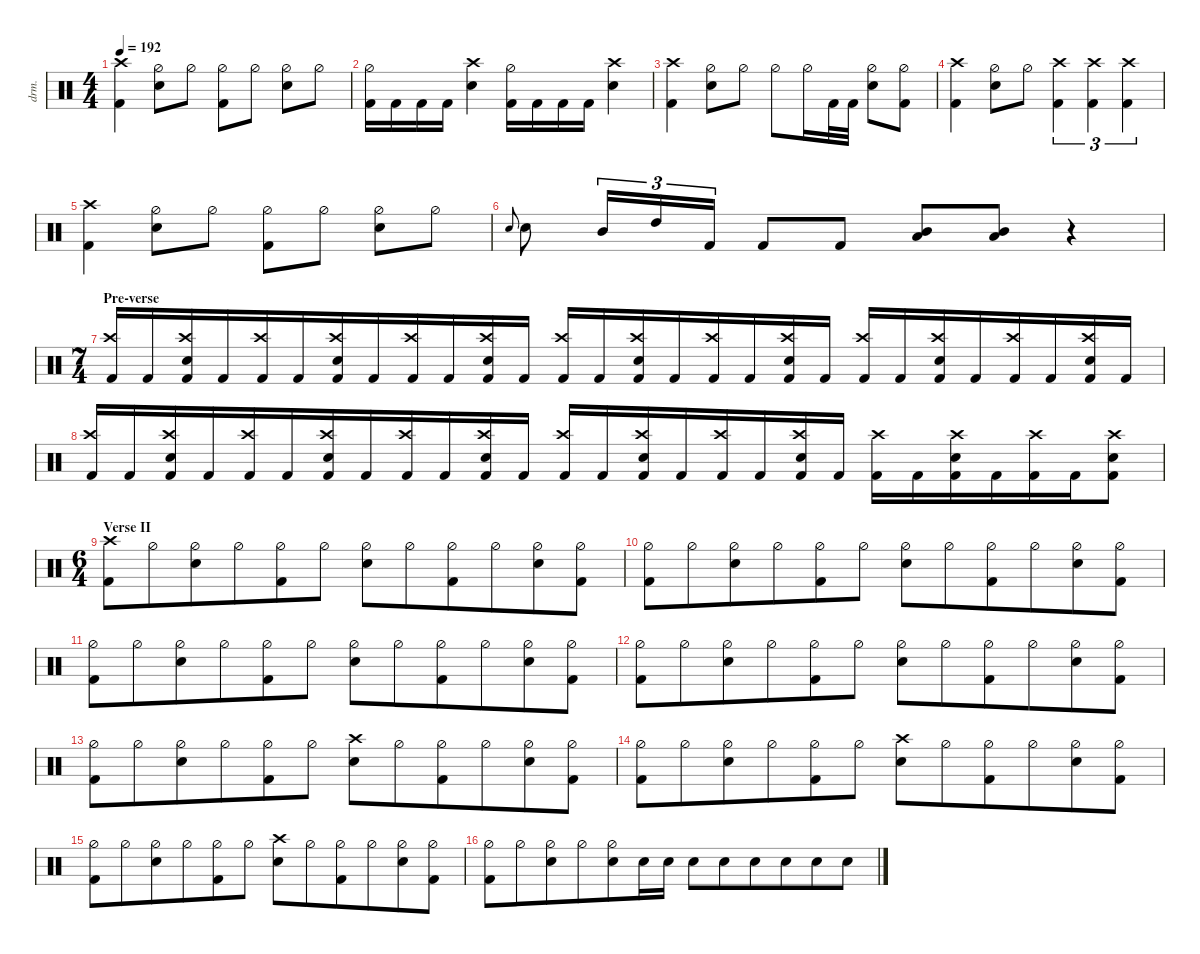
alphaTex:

\defaultSystemsLayout 4
\hideDynamics
\bracketExtendMode nobrackets
\otherSystemsTrackNameOrientation horizontal
\track ("Drumkit" "drm.") {defaultSystemsLayout 4 multiBarRest instrument percussion}
\staff
\articulation defaults
\ts (4 4)
\tempo 192
\clef neutral
\ks c
("Crash high (hit)" "Kick (hit) 2").4{dy f beam Down} ("Hi-Hat (half)" "Snare (hit) 2").8{beam Down} "Hi-Hat (half)".8{beam Down} ("Hi-Hat (half)" "Kick (hit) 2").8{beam Down} "Hi-Hat (half)".8{beam Down} ("Hi-Hat (half)" "Snare (hit) 2").8{beam Down} "Hi-Hat (half)".8{beam Down} |
("Hi-Hat (half)" "Kick (hit) 2").16{beam Down} "Kick (hit) 2".16{beam Down} "Kick (hit) 2".16{beam Down} "Kick (hit) 2".16{beam Down} ("Crash high (hit)" "Snare (hit) 2").4{beam Down} ("Hi-Hat (half)" "Kick (hit) 2").16{beam Down} "Kick (hit) 2".16{beam Down} "Kick (hit) 2".16{beam Down} "Kick (hit) 2".16{beam Down} ("Crash high (hit)" "Snare (hit) 2").4{beam Down} |
("Crash high (hit)" "Kick (hit) 2").4{beam Down} ("Hi-Hat (half)" "Snare (hit) 2").8{beam Down} "Hi-Hat (half)".8{beam Down} "Hi-Hat (half)".8{beam Down} "Hi-Hat (half)".16{beam Down} "Kick (hit) 2".32{beam Down} "Kick (hit) 2".32{beam Down} ("Hi-Hat (half)" "Snare (hit) 2").8{beam Down} ("Hi-Hat (half)" "Kick (hit) 2").8{beam Down} |
("Crash high (hit)" "Kick (hit) 2").4{beam Down} ("Hi-Hat (half)" "Snare (hit) 2").8{beam Down} "Hi-Hat (half)".8{beam Down} ("Crash high (hit)" "Kick (hit) 2").4{tu (3 2) beam Down} ("Crash high (hit)" "Kick (hit) 2").4{tu (3 2) beam Down} ("Crash high (hit)" "Kick (hit) 2").4{tu (3 2) beam Down} |
("Crash high (hit)" "Kick (hit) 2").4{beam Down} ("Hi-Hat (half)" "Snare (hit) 2").8{beam Down} "Hi-Hat (half)".8{beam Down} ("Hi-Hat (half)" "Kick (hit) 2").8{beam Down} "Hi-Hat (half)".8{beam Down} ("Hi-Hat (half)" "Snare (hit) 2").8{beam Down} "Hi-Hat (half)".8{beam Down} |
"Snare (hit) 2".8{gr onbeat beam Up} "Snare (hit) 2".8{beam Down} "Mid Tom (hit)".16{tu (3 2) beam Up} "High Tom (hit)".16{tu (3 2) beam Up} "Kick (hit) 2".16{tu (3 2) beam Up} "Kick (hit) 2".8{beam Up} "Kick (hit) 2".8{beam Up} ("Mid Tom (hit)" "Low Tom (hit)").8{dy fff beam Up} ("Mid Tom (hit)" "Low Tom (hit)").8{beam Up} r.4{beam Up} |
\ts (7 4)
\beaming (8 6 4 4)
\section ("" "Pre-verse")
("Kick (hit) 2" "Crash high (hit)").16{dy f beam Up} "Kick (hit) 2".16{beam Up} ("Kick (hit) 2" "Crash high (hit)" "Snare (hit) 2").16{beam Up} "Kick (hit) 2".16{beam Up} ("Kick (hit) 2" "Crash high (hit)").16{beam Up} "Kick (hit) 2".16{beam Up} ("Kick (hit) 2" "Crash high (hit)" "Snare (hit) 2").16{beam Up} "Kick (hit) 2".16{beam Up} ("Kick (hit) 2" "Crash high (hit)").16{beam Up} "Kick (hit) 2".16{beam Up} ("Kick (hit) 2" "Crash high (hit)" "Snare (hit) 2").16{beam Up} "Kick (hit) 2".16{beam Up} ("Kick (hit) 2" "Crash high (hit)").16{beam Up} "Kick (hit) 2".16{beam Up} ("Kick (hit) 2" "Crash high (hit)" "Snare (hit) 2").16{beam Up} "Kick (hit) 2".16{beam Up} ("Kick (hit) 2" "Crash high (hit)").16{beam Up} "Kick (hit) 2".16{beam Up} ("Kick (hit) 2" "Crash high (hit)" "Snare (hit) 2").16{beam Up} "Kick (hit) 2".16{beam Up} ("Kick (hit) 2" "Crash high (hit)").16{beam Up} "Kick (hit) 2".16{beam Up} ("Kick (hit) 2" "Crash high (hit)" "Snare (hit) 2").16{beam Up} "Kick (hit) 2".16{beam Up} ("Kick (hit) 2" "Crash high (hit)").16{beam Up} "Kick (hit) 2".16{beam Up} ("Kick (hit) 2" "Crash high (hit)" "Snare (hit) 2").16{beam Up} "Kick (hit) 2".16{beam Up} |
("Kick (hit) 2" "Crash high (hit)").16{beam Up} "Kick (hit) 2".16{beam Up} ("Kick (hit) 2" "Crash high (hit)" "Snare (hit) 2").16{beam Up} "Kick (hit) 2".16{beam Up} ("Kick (hit) 2" "Crash high (hit)").16{beam Up} "Kick (hit) 2".16{beam Up} ("Kick (hit) 2" "Crash high (hit)" "Snare (hit) 2").16{beam Up} "Kick (hit) 2".16{beam Up} ("Kick (hit) 2" "Crash high (hit)").16{beam Up} "Kick (hit) 2".16{beam Up} ("Kick (hit) 2" "Crash high (hit)" "Snare (hit) 2").16{beam Up} "Kick (hit) 2".16{beam Up} ("Kick (hit) 2" "Crash high (hit)").16{beam Up} "Kick (hit) 2".16{beam Up} ("Kick (hit) 2" "Crash high (hit)" "Snare (hit) 2").16{beam Up} "Kick (hit) 2".16{beam Up} ("Kick (hit) 2" "Crash high (hit)").16{beam Up} "Kick (hit) 2".16{beam Up} ("Kick (hit) 2" "Crash high (hit)" "Snare (hit) 2").16{beam Up} "Kick (hit) 2".16{beam Up} ("Kick (hit) 2" "Crash high (hit)").16{beam Down} "Kick (hit) 2".16{beam Down} ("Kick (hit) 2" "Crash high (hit)" "Snare (hit) 2").16{beam Down} "Kick (hit) 2".16{beam Down} ("Kick (hit) 2" "Crash high (hit)").16{beam Down} "Kick (hit) 2".16{beam Down} ("Kick (hit) 2" "Crash high (hit)" "Snare (hit) 2").8{beam Down} |
\ts (6 4)
\beaming (8 6 6)
\section ("" "Verse II")
("Kick (hit) 2" "Crash high (hit)").8{beam Down} "Hi-Hat (half)".8{beam Down} ("Hi-Hat (half)" "Snare (hit) 2").8{beam Down} "Hi-Hat (half)".8{beam Down} ("Kick (hit) 2" "Hi-Hat (half)").8{beam Down} "Hi-Hat (half)".8{beam Down} ("Hi-Hat (half)" "Snare (hit) 2").8{beam Down} "Hi-Hat (half)".8{beam Down} ("Kick (hit) 2" "Hi-Hat (half)").8{beam Down} "Hi-Hat (half)".8{beam Down} ("Hi-Hat (half)" "Snare (hit) 2").8{beam Down} ("Hi-Hat (half)" "Kick (hit) 2").8{beam Down} |
("Kick (hit) 2" "Hi-Hat (half)").8{beam Down} "Hi-Hat (half)".8{beam Down} ("Hi-Hat (half)" "Snare (hit) 2").8{beam Down} "Hi-Hat (half)".8{beam Down} ("Kick (hit) 2" "Hi-Hat (half)").8{beam Down} "Hi-Hat (half)".8{beam Down} ("Hi-Hat (half)" "Snare (hit) 2").8{beam Down} "Hi-Hat (half)".8{beam Down} ("Kick (hit) 2" "Hi-Hat (half)").8{beam Down} "Hi-Hat (half)".8{beam Down} ("Hi-Hat (half)" "Snare (hit) 2").8{beam Down} ("Hi-Hat (half)" "Kick (hit) 2").8{beam Down} |
("Kick (hit) 2" "Hi-Hat (half)").8{beam Down} "Hi-Hat (half)".8{beam Down} ("Hi-Hat (half)" "Snare (hit) 2").8{beam Down} "Hi-Hat (half)".8{beam Down} ("Kick (hit) 2" "Hi-Hat (half)").8{beam Down} "Hi-Hat (half)".8{beam Down} ("Hi-Hat (half)" "Snare (hit) 2").8{beam Down} "Hi-Hat (half)".8{beam Down} ("Kick (hit) 2" "Hi-Hat (half)").8{beam Down} "Hi-Hat (half)".8{beam Down} ("Hi-Hat (half)" "Snare (hit) 2").8{beam Down} ("Hi-Hat (half)" "Kick (hit) 2").8{beam Down} |
("Kick (hit) 2" "Hi-Hat (half)").8{beam Down} "Hi-Hat (half)".8{beam Down} ("Hi-Hat (half)" "Snare (hit) 2").8{beam Down} "Hi-Hat (half)".8{beam Down} ("Kick (hit) 2" "Hi-Hat (half)").8{beam Down} "Hi-Hat (half)".8{beam Down} ("Hi-Hat (half)" "Snare (hit) 2").8{beam Down} "Hi-Hat (half)".8{beam Down} ("Kick (hit) 2" "Hi-Hat (half)").8{beam Down} "Hi-Hat (half)".8{beam Down} ("Hi-Hat (half)" "Snare (hit) 2").8{beam Down} ("Hi-Hat (half)" "Kick (hit) 2").8{beam Down} |
("Kick (hit) 2" "Hi-Hat (half)").8{beam Down} "Hi-Hat (half)".8{beam Down} ("Snare (hit) 2" "Hi-Hat (half)").8{beam Down} "Hi-Hat (half)".8{beam Down} ("Kick (hit) 2" "Hi-Hat (half)").8{beam Down} "Hi-Hat (half)".8{beam Down} ("Snare (hit) 2" "Crash high (hit)").8{beam Down} "Hi-Hat (half)".8{beam Down} ("Kick (hit) 2" "Hi-Hat (half)").8{beam Down} "Hi-Hat (half)".8{beam Down} ("Hi-Hat (half)" "Snare (hit) 2").8{beam Down} ("Hi-Hat (half)" "Kick (hit) 2").8{beam Down} |
("Kick (hit) 2" "Hi-Hat (half)").8{beam Down} "Hi-Hat (half)".8{beam Down} ("Snare (hit) 2" "Hi-Hat (half)").8{beam Down} "Hi-Hat (half)".8{beam Down} ("Kick (hit) 2" "Hi-Hat (half)").8{beam Down} "Hi-Hat (half)".8{beam Down} ("Snare (hit) 2" "Crash high (hit)").8{beam Down} "Hi-Hat (half)".8{beam Down} ("Kick (hit) 2" "Hi-Hat (half)").8{beam Down} "Hi-Hat (half)".8{beam Down} ("Hi-Hat (half)" "Snare (hit) 2").8{beam Down} ("Hi-Hat (half)" "Kick (hit) 2").8{beam Down} |
("Kick (hit) 2" "Hi-Hat (half)").8{beam Down} "Hi-Hat (half)".8{beam Down} ("Snare (hit) 2" "Hi-Hat (half)").8{beam Down} "Hi-Hat (half)".8{beam Down} ("Kick (hit) 2" "Hi-Hat (half)").8{beam Down} "Hi-Hat (half)".8{beam Down} ("Snare (hit) 2" "Crash high (hit)").8{beam Down} "Hi-Hat (half)".8{beam Down} ("Kick (hit) 2" "Hi-Hat (half)").8{beam Down} "Hi-Hat (half)".8{beam Down} ("Hi-Hat (half)" "Snare (hit) 2").8{beam Down} ("Hi-Hat (half)" "Kick (hit) 2").8{beam Down} |
("Kick (hit) 2" "Hi-Hat (half)").8{beam Down} "Hi-Hat (half)".8{beam Down} ("Snare (hit) 2" "Hi-Hat (half)").8{beam Down} "Hi-Hat (half)".8{beam Down} ("Snare (hit) 2" "Hi-Hat (half)").8{beam Down} "Snare (hit) 2".16{dy mf beam Down} "Snare (hit) 2".16{dy f beam Down} "Snare (hit) 2".8{beam Down} "Snare (hit) 2".8{beam Down} "Snare (hit) 2".8{beam Down} "Snare (hit) 2".8{beam Down} "Snare (hit) 2".8{beam Down} "Snare (hit) 2".8{beam Down}
